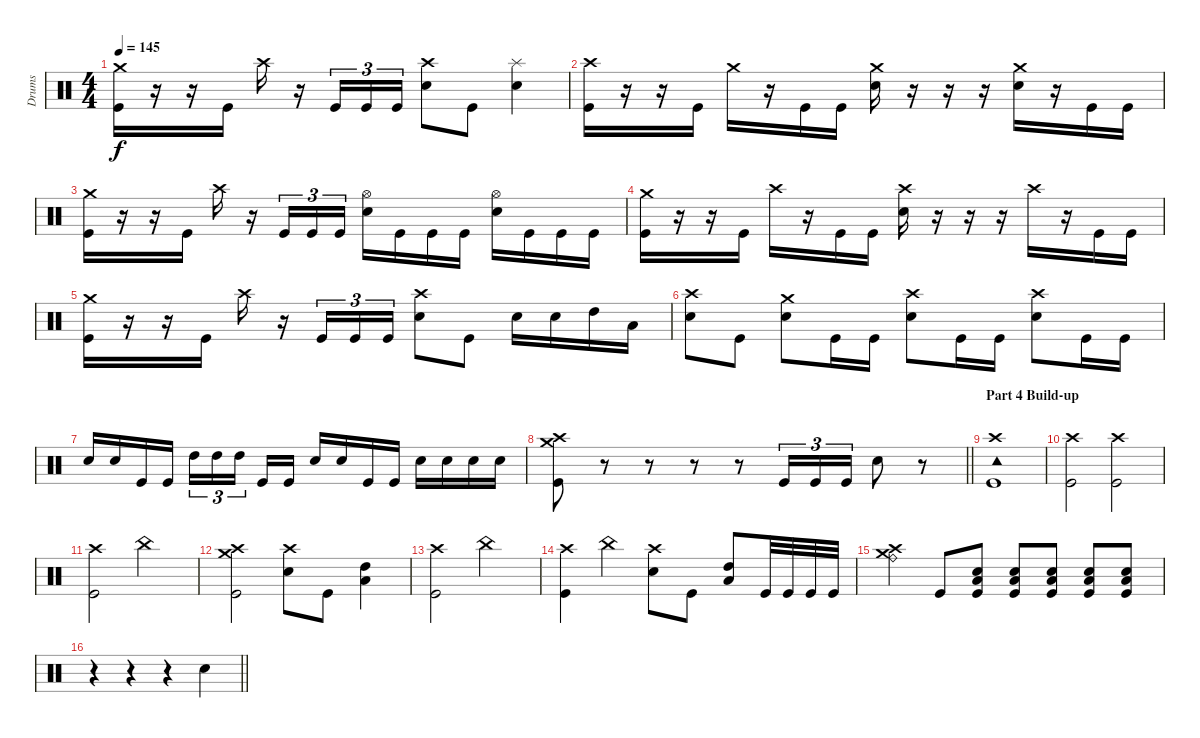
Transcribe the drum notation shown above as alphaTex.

\track ("Drums" "Drums") {instrument percussion}
\staff {score}
\articulation defaults
\ts (4 4)
\tempo 145
\clef neutral
\ks c
("Crash medium (hit)" "Kick (hit)").16{dy f} r.16 r.16 "Kick (hit)".16 "Crash high (hit)".16 r.16 "Kick (hit)".16{tu (3 2)} "Kick (hit)".16{tu (3 2)} "Kick (hit)".16{tu (3 2)} ("Crash high (hit)" "Snare (hit) 2").8 "Kick (hit)".8 ("Splash (hit)" "Snare (hit) 2").4 |
("Crash high (hit)" "Kick (hit)").16 r.16 r.16 "Kick (hit)".16 "Crash medium (hit)".16 r.16 "Kick (hit)".16 "Kick (hit)".16 ("Crash medium (hit)" "Snare (hit) 2").16 r.16 r.16 r.16 ("Crash medium (hit)" "Snare (hit) 2").16 r.16 "Kick (hit)".16 "Kick (hit)".16 |
("Crash medium (hit)" "Kick (hit)").16 r.16 r.16 "Kick (hit)".16 "Crash high (hit)".16 r.16 "Kick (hit)".16{tu (3 2)} "Kick (hit)".16{tu (3 2)} "Kick (hit)".16{tu (3 2)} ("Hi-Hat (open)" "Snare (hit) 2").16 "Kick (hit)".16 "Kick (hit)".16 "Kick (hit)".16 ("Hi-Hat (open)" "Snare (hit) 2").16 "Kick (hit)".16 "Kick (hit)".16 "Kick (hit)".16 |
("Crash medium (hit)" "Kick (hit)").16 r.16 r.16 "Kick (hit)".16 "Crash high (hit)".16 r.16 "Kick (hit)".16 "Kick (hit)".16 ("Crash high (hit)" "Snare (hit) 2").16 r.16 r.16 r.16 "Crash high (hit)".16 r.16 "Kick (hit)".16 "Kick (hit)".16 |
("Crash medium (hit)" "Kick (hit)").16 r.16 r.16 "Kick (hit)".16 "Crash high (hit)".16 r.16 "Kick (hit)".16{tu (3 2)} "Kick (hit)".16{tu (3 2)} "Kick (hit)".16{tu (3 2)} ("Crash high (hit)" "Snare (hit) 2").8 "Kick (hit)".8 "Snare (hit) 2".16 "Snare (hit) 2".16 "High Tom (hit)".16 "Low Tom (hit)".16 |
("Crash high (hit)" "Snare (hit) 2").8 "Kick (hit)".8 ("Crash medium (hit)" "Snare (hit) 2").8 "Kick (hit)".16 "Kick (hit)".16 ("Crash high (hit)" "Snare (hit) 2").8 "Kick (hit)".16 "Kick (hit)".16 ("Crash high (hit)" "Snare (hit) 2").8 "Kick (hit)".16 "Kick (hit)".16 |
"Snare (hit) 2".16 "Snare (hit) 2".16 "Kick (hit)".16 "Kick (hit)".16 "High Tom (hit)".16{tu (3 2)} "High Tom (hit)".16{tu (3 2)} "High Tom (hit)".16{tu (3 2) beam splitsecondary} "Kick (hit)".16 "Kick (hit)".16 "Snare (hit) 2".16 "Snare (hit) 2".16 "Kick (hit)".16 "Kick (hit)".16 "Snare (hit) 2".16 "Snare (hit) 2".16 "Snare (hit) 2".16 "Snare (hit) 2".16 |
\barLineRight lightlight
("Crash medium (hit)" "Crash high (hit)" "Kick (hit)").8 r.8 r.8 r.8 r.8 "Kick (hit)".16{tu (3 2)} "Kick (hit)".16{tu (3 2)} "Kick (hit)".16{tu (3 2)} "Snare (hit) 2".8 r.8 |
\section ("" "Part 4 Build-up")
("Crash high (hit)" "Tambourine (hit)" "Kick (hit)").1 |
("Crash high (hit)" "Kick (hit)").2 ("Crash high (hit)" "Kick (hit)").2 |
("Crash high (hit)" "Kick (hit)").2 "China (hit)".2 |
("Crash medium (hit)" "Crash high (hit)" "Kick (hit)").2 ("Crash high (hit)" "Snare (hit) 2").8 "Kick (hit)".8 ("High Tom (hit)" "Low Tom (hit)").4 |
("Crash high (hit)" "Kick (hit)").2 "China (hit)".2 |
("Crash high (hit)" "Kick (hit)").4 "China (hit)".4 ("Crash high (hit)" "Snare (hit) 2").8 "Kick (hit)".8 ("High Tom (hit)" "Low Tom (hit)").8 "Kick (hit)".32 "Kick (hit)".32 "Kick (hit)".32 "Kick (hit)".32 |
("Crash high (hit)" "Crash medium (hit)" "Ride (bell)").4 "Kick (hit)".8 ("Snare (hit) 2" "Low Floor Tom (hit)" "Kick (hit)").8 ("Snare (hit) 2" "Low Floor Tom (hit)" "Kick (hit)").8 ("Snare (hit) 2" "Low Floor Tom (hit)" "Kick (hit)").8 ("Snare (hit) 2" "Low Floor Tom (hit)" "Kick (hit)").8 ("Snare (hit) 2" "Low Floor Tom (hit)" "Kick (hit)").8 |
\barLineRight lightlight
r.4 r.4 r.4 "Snare (hit) 2".4
